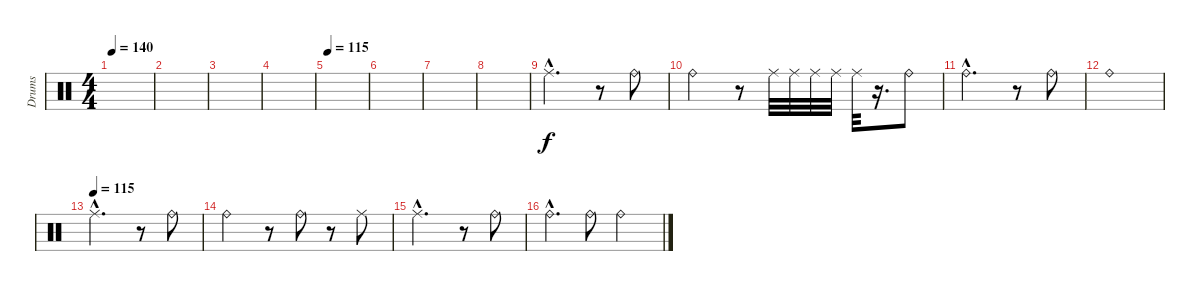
\track ("Drums" "Drums") {instrument percussion}
\staff {score}
\articulation defaults
\ts (4 4)
\tempo 140
\clef neutral
\ks c
|
|
|
|
\tempo 115
|
|
|
|
"Ride (middle)"{hac}.2{d} r.8 "Ride (bell)".8 |
"Ride (bell)".2 r.8 "Ride (middle)".32 "Ride (middle)".32 "Ride (middle)".32 "Ride (middle)".32 "Ride (middle)".32 r.16{d} "Ride (bell)".8 |
"Ride (bell)"{hac}.2{d} r.8 "Ride (bell)".8 |
"Ride (bell)".1 |
\tempo (115)
"Ride (middle)"{hac}.2{d} r.8 "Ride (bell)".8 |
"Ride (bell)".2 r.8 "Ride (bell)".8 r.8 "Ride (middle)".8 |
"Ride (middle)"{hac}.2{d} r.8 "Ride (bell)".8 |
"Ride (bell)"{hac}.4{d} "Ride (bell)".8 "Ride (bell)".2
